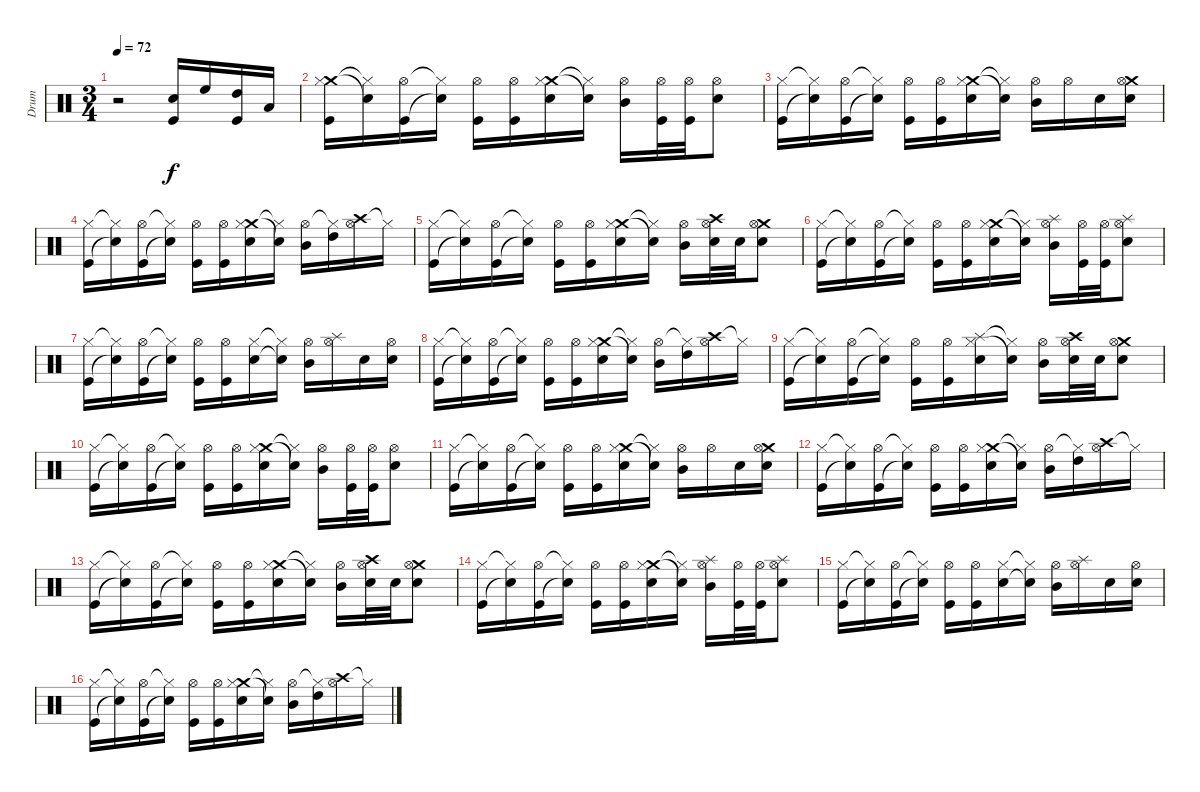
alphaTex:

\track ("Drum" "Drum") {instrument percussion}
\staff {score}
\articulation defaults
\ts (3 4)
\tempo 72
\clef neutral
\ks c
r.2{dy f} ("Kick (hit)" "Snare (hit) 2").16 "High Floor Tom (hit)".16 ("Kick (hit)" "High Tom (hit)").16 "Low Tom (hit)".16 |
("Crash medium (hit)" "Hi-Hat (closed)" "Kick (hit)").16 ("Hi-Hat (closed)"{t} "Snare (hit)"{t}).16 ("Hi-Hat (open)" "Kick (hit)").16 ("Hi-Hat (closed)"{t} "Snare (hit)"{t}).16 ("Hi-Hat (open)" "Kick (hit)").16 ("Hi-Hat (open)" "Kick (hit)").16 ("Crash medium (hit)" "Hi-Hat (closed)" "Snare (hit) 2").16 ("Hi-Hat (closed)"{t} "Snare (hit)"{t}).16 ("Hi-Hat (open)" "Mid Tom (hit)").16 ("Hi-Hat (open)" "Kick (hit)").32 ("Hi-Hat (open)" "Kick (hit)").32 ("Hi-Hat (open)" "Snare (hit) 2").8 |
("Hi-Hat (closed)" "Kick (hit)").16 ("Hi-Hat (closed)"{t} "Snare (hit)"{t}).16 ("Hi-Hat (open)" "Kick (hit)").16 ("Hi-Hat (closed)"{t} "Snare (hit)"{t}).16 ("Hi-Hat (open)" "Kick (hit)").16 ("Hi-Hat (open)" "Kick (hit)").16 ("Crash medium (hit)" "Hi-Hat (closed)" "Snare (hit) 2").16 ("Hi-Hat (closed)"{t} "Snare (hit)"{t}).16 ("Hi-Hat (open)" "Mid Tom (hit)").16 "Hi-Hat (open)".16 "Snare (hit) 2".16 ("Crash medium (hit)" "Hi-Hat (open)" "Snare (hit) 2").16 |
("Hi-Hat (closed)" "Kick (hit)").16 ("Hi-Hat (closed)"{t} "Snare (hit)"{t}).16 ("Hi-Hat (open)" "Kick (hit)").16 ("Hi-Hat (closed)"{t} "Snare (hit)"{t}).16 ("Hi-Hat (open)" "Kick (hit)").16 ("Hi-Hat (open)" "Kick (hit)").16 ("Crash medium (hit)" "Hi-Hat (closed)" "Snare (hit) 2").16 ("Hi-Hat (closed)"{t} "Snare (hit)"{t}).16 ("Hi-Hat (open)" "Mid Tom (hit)").16 ("Hi-Hat (closed)"{t} "High Tom (hit)").16 ("Crash high (hit)" "Hi-Hat (open)").16 "Hi-Hat (closed)"{t}.16 |
("Hi-Hat (closed)" "Kick (hit)").16 ("Hi-Hat (closed)"{t} "Snare (hit)"{t}).16 ("Hi-Hat (open)" "Kick (hit)").16 ("Hi-Hat (closed)"{t} "Snare (hit)"{t}).16 ("Hi-Hat (open)" "Kick (hit)").16 ("Hi-Hat (open)" "Kick (hit)").16 ("Crash medium (hit)" "Hi-Hat (closed)" "Snare (hit) 2").16 ("Hi-Hat (closed)"{t} "Snare (hit)"{t}).16 ("Hi-Hat (open)" "Mid Tom (hit)").16 ("Crash high (hit)" "Hi-Hat (open)" "Snare (hit) 2").32 "Snare (hit) 2".32 ("Crash medium (hit)" "Hi-Hat (open)" "Snare (hit) 2").8 |
("Hi-Hat (closed)" "Kick (hit)").16 ("Hi-Hat (closed)"{t} "Snare (hit)"{t}).16 ("Hi-Hat (open)" "Kick (hit)").16 ("Hi-Hat (closed)"{t} "Snare (hit)"{t}).16 ("Hi-Hat (open)" "Kick (hit)").16 ("Hi-Hat (open)" "Kick (hit)").16 ("Crash medium (hit)" "Hi-Hat (closed)" "Snare (hit) 2").16 ("Hi-Hat (closed)"{t} "Snare (hit)"{t}).16 ("Splash (hit)" "Hi-Hat (open)" "Mid Tom (hit)").16 ("Hi-Hat (open)" "Kick (hit)").32 ("Hi-Hat (open)" "Kick (hit)").32 ("Splash (hit)" "Hi-Hat (open)" "Snare (hit) 2").8 |
("Hi-Hat (closed)" "Kick (hit)").16 ("Hi-Hat (closed)"{t} "Snare (hit)"{t}).16 ("Hi-Hat (open)" "Kick (hit)").16 ("Hi-Hat (closed)"{t} "Snare (hit)"{t}).16 ("Hi-Hat (open)" "Kick (hit)").16 ("Hi-Hat (open)" "Kick (hit)").16 ("Hi-Hat (closed)" "Snare (hit) 2").16 ("Hi-Hat (closed)"{t} "Snare (hit)"{t}).16 ("Hi-Hat (open)" "Mid Tom (hit)").16 ("Splash (hit)" "Hi-Hat (open)").16 "Snare (hit) 2".16 ("Hi-Hat (open)" "Snare (hit) 2").16 |
("Hi-Hat (closed)" "Kick (hit)").16 ("Hi-Hat (closed)"{t} "Snare (hit)"{t}).16 ("Hi-Hat (open)" "Kick (hit)").16 ("Hi-Hat (closed)"{t} "Snare (hit)"{t}).16 ("Hi-Hat (open)" "Kick (hit)").16 ("Hi-Hat (open)" "Kick (hit)").16 ("Crash medium (hit)" "Hi-Hat (closed)" "Snare (hit) 2").16 ("Hi-Hat (closed)"{t} "Snare (hit)"{t}).16 ("Hi-Hat (open)" "Mid Tom (hit)").16 ("Hi-Hat (closed)"{t} "High Tom (hit)").16 ("Crash high (hit)" "Hi-Hat (open)").16 "Hi-Hat (closed)"{t}.16 |
("Hi-Hat (closed)" "Kick (hit)").16 ("Hi-Hat (closed)"{t} "Snare (hit)"{t}).16 ("Hi-Hat (open)" "Kick (hit)").16 ("Hi-Hat (closed)"{t} "Snare (hit)"{t}).16 ("Hi-Hat (open)" "Kick (hit)").16 ("Hi-Hat (open)" "Kick (hit)").16 ("Splash (hit)" "Hi-Hat (closed)" "Snare (hit) 2").16 ("Hi-Hat (closed)"{t} "Snare (hit)"{t}).16 ("Hi-Hat (open)" "Mid Tom (hit)").16 ("Crash high (hit)" "Hi-Hat (open)" "Snare (hit) 2").32 "Snare (hit) 2".32 ("Crash medium (hit)" "Hi-Hat (open)" "Snare (hit) 2").8 |
("Hi-Hat (closed)" "Kick (hit)").16 ("Hi-Hat (closed)"{t} "Snare (hit)"{t}).16 ("Hi-Hat (open)" "Kick (hit)").16 ("Hi-Hat (closed)"{t} "Snare (hit)"{t}).16 ("Hi-Hat (open)" "Kick (hit)").16 ("Hi-Hat (open)" "Kick (hit)").16 ("Crash medium (hit)" "Hi-Hat (closed)" "Snare (hit) 2").16 ("Hi-Hat (closed)"{t} "Snare (hit)"{t}).16 ("Hi-Hat (open)" "Mid Tom (hit)").16 ("Hi-Hat (open)" "Kick (hit)").32 ("Hi-Hat (open)" "Kick (hit)").32 ("Hi-Hat (open)" "Snare (hit) 2").8 |
("Hi-Hat (closed)" "Kick (hit)").16 ("Hi-Hat (closed)"{t} "Snare (hit)"{t}).16 ("Hi-Hat (open)" "Kick (hit)").16 ("Hi-Hat (closed)"{t} "Snare (hit)"{t}).16 ("Hi-Hat (open)" "Kick (hit)").16 ("Hi-Hat (open)" "Kick (hit)").16 ("Crash medium (hit)" "Hi-Hat (closed)" "Snare (hit) 2").16 ("Hi-Hat (closed)"{t} "Snare (hit)"{t}).16 ("Hi-Hat (open)" "Mid Tom (hit)").16 "Hi-Hat (open)".16 "Snare (hit) 2".16 ("Crash medium (hit)" "Hi-Hat (open)" "Snare (hit) 2").16 |
("Hi-Hat (closed)" "Kick (hit)").16 ("Hi-Hat (closed)"{t} "Snare (hit)"{t}).16 ("Hi-Hat (open)" "Kick (hit)").16 ("Hi-Hat (closed)"{t} "Snare (hit)"{t}).16 ("Hi-Hat (open)" "Kick (hit)").16 ("Hi-Hat (open)" "Kick (hit)").16 ("Crash medium (hit)" "Hi-Hat (closed)" "Snare (hit) 2").16 ("Hi-Hat (closed)"{t} "Snare (hit)"{t}).16 ("Hi-Hat (open)" "Mid Tom (hit)").16 ("Hi-Hat (closed)"{t} "High Tom (hit)").16 ("Crash high (hit)" "Hi-Hat (open)").16 "Hi-Hat (closed)"{t}.16 |
("Hi-Hat (closed)" "Kick (hit)").16 ("Hi-Hat (closed)"{t} "Snare (hit)"{t}).16 ("Hi-Hat (open)" "Kick (hit)").16 ("Hi-Hat (closed)"{t} "Snare (hit)"{t}).16 ("Hi-Hat (open)" "Kick (hit)").16 ("Hi-Hat (open)" "Kick (hit)").16 ("Crash medium (hit)" "Hi-Hat (closed)" "Snare (hit) 2").16 ("Hi-Hat (closed)"{t} "Snare (hit)"{t}).16 ("Hi-Hat (open)" "Mid Tom (hit)").16 ("Crash high (hit)" "Hi-Hat (open)" "Snare (hit) 2").32 "Snare (hit) 2".32 ("Crash medium (hit)" "Hi-Hat (open)" "Snare (hit) 2").8 |
("Hi-Hat (closed)" "Kick (hit)").16 ("Hi-Hat (closed)"{t} "Snare (hit)"{t}).16 ("Hi-Hat (open)" "Kick (hit)").16 ("Hi-Hat (closed)"{t} "Snare (hit)"{t}).16 ("Hi-Hat (open)" "Kick (hit)").16 ("Hi-Hat (open)" "Kick (hit)").16 ("Crash medium (hit)" "Hi-Hat (closed)" "Snare (hit) 2").16 ("Hi-Hat (closed)"{t} "Snare (hit)"{t}).16 ("Splash (hit)" "Hi-Hat (open)" "Mid Tom (hit)").16 ("Hi-Hat (open)" "Kick (hit)").32 ("Hi-Hat (open)" "Kick (hit)").32 ("Splash (hit)" "Hi-Hat (open)" "Snare (hit) 2").8 |
("Hi-Hat (closed)" "Kick (hit)").16 ("Hi-Hat (closed)"{t} "Snare (hit)"{t}).16 ("Hi-Hat (open)" "Kick (hit)").16 ("Hi-Hat (closed)"{t} "Snare (hit)"{t}).16 ("Hi-Hat (open)" "Kick (hit)").16 ("Hi-Hat (open)" "Kick (hit)").16 ("Hi-Hat (closed)" "Snare (hit) 2").16 ("Hi-Hat (closed)"{t} "Snare (hit)"{t}).16 ("Hi-Hat (open)" "Mid Tom (hit)").16 ("Splash (hit)" "Hi-Hat (open)").16 "Snare (hit) 2".16 ("Hi-Hat (open)" "Snare (hit) 2").16 |
("Hi-Hat (closed)" "Kick (hit)").16 ("Hi-Hat (closed)"{t} "Snare (hit)"{t}).16 ("Hi-Hat (open)" "Kick (hit)").16 ("Hi-Hat (closed)"{t} "Snare (hit)"{t}).16 ("Hi-Hat (open)" "Kick (hit)").16 ("Hi-Hat (open)" "Kick (hit)").16 ("Crash medium (hit)" "Hi-Hat (closed)" "Snare (hit) 2").16 ("Hi-Hat (closed)"{t} "Snare (hit)"{t}).16 ("Hi-Hat (open)" "Mid Tom (hit)").16 ("Hi-Hat (closed)"{t} "High Tom (hit)").16 ("Crash high (hit)" "Hi-Hat (open)").16 "Hi-Hat (closed)"{t}.16
